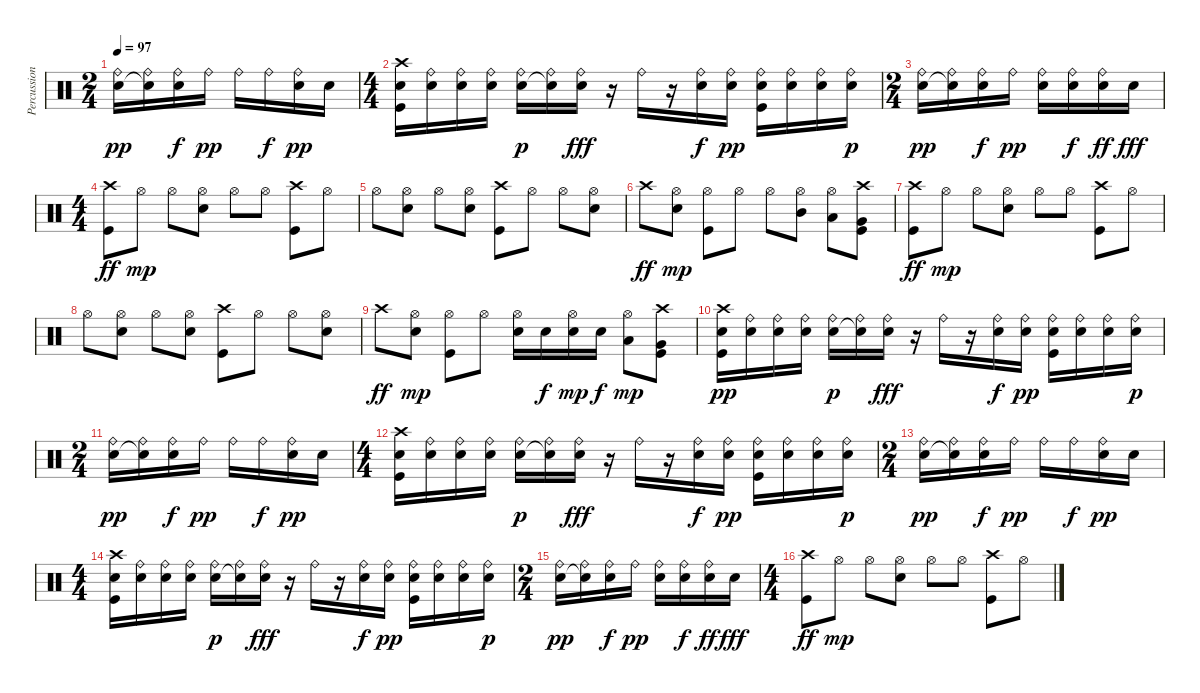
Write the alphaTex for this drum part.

\track ("Percussions (Etn)" "Percussion") {instrument percussion}
\staff {score}
\articulation defaults
\ts (2 4)
\tempo 97
\clef neutral
\ks c
("Ride (bell)" "Electric Snare (hit)").16{dy pp} ("Ride (bell)" "Snare (hit)"{t}).16 ("Ride (bell)" "Electric Snare (hit)").16{dy f} "Ride (bell)".16{dy pp} "Ride (bell)".16 "Ride (bell)".16{dy f} ("Ride (bell)" "Electric Snare (hit)").16{dy pp} "Electric Snare (hit)".16 |
\ts (4 4)
("Crash high (hit)" "Electric Snare (hit)" "Kick (hit)").16 ("Ride (bell)" "Electric Snare (hit)").16 ("Ride (bell)" "Electric Snare (hit)").16 ("Ride (bell)" "Electric Snare (hit)").16 ("Ride (bell)" "Electric Snare (hit)").16{dy p} ("Ride (bell)" "Snare (hit)"{t}).16 ("Ride (bell)" "Electric Snare (hit)").16{dy fff} r.16 "Ride (bell)".16 r.16 ("Ride (bell)" "Electric Snare (hit)").16{dy f} ("Ride (bell)" "Electric Snare (hit)").16{dy pp} ("Ride (bell)" "Electric Snare (hit)" "Kick (hit)").16 ("Ride (bell)" "Electric Snare (hit)").16 ("Ride (bell)" "Electric Snare (hit)").16 ("Ride (bell)" "Electric Snare (hit)").16{dy p} |
\ts (2 4)
("Ride (bell)" "Electric Snare (hit)").16{dy pp} ("Ride (bell)" "Snare (hit)"{t}).16 ("Ride (bell)" "Electric Snare (hit)").16{dy f} "Ride (bell)".16{dy pp} ("Ride (bell)" "Electric Snare (hit)").16 ("Ride (bell)" "Electric Snare (hit)").16{dy f} ("Ride (bell)" "Electric Snare (hit)").16{dy ff} "Electric Snare (hit)".16{dy fff} |
\ts (4 4)
("Crash high (hit)" "Kick (hit)").8{dy ff} "Hi-Hat (open)".8{dy mp} "Hi-Hat (open)".8 ("Hi-Hat (open)" "Electric Snare (hit)").8 "Hi-Hat (open)".8 "Hi-Hat (open)".8 ("Crash high (hit)" "Kick (hit)").8 "Hi-Hat (open)".8 |
"Hi-Hat (open)".8 ("Hi-Hat (open)" "Electric Snare (hit)").8 "Hi-Hat (open)".8 ("Hi-Hat (open)" "Electric Snare (hit)").8 ("Crash high (hit)" "Kick (hit)").8 "Hi-Hat (open)".8 "Hi-Hat (open)".8 ("Hi-Hat (open)" "Electric Snare (hit)").8 |
"Crash high (hit)".8{dy ff} ("Hi-Hat (open)" "Electric Snare (hit)").8{dy mp} ("Hi-Hat (open)" "Kick (hit)").8 "Hi-Hat (open)".8 "Hi-Hat (open)".8 ("Hi-Hat (open)" "Mid Tom (hit)").8 ("Hi-Hat (open)" "Low Tom (hit)").8 ("Crash high (hit)" "Very Low Tom (hit)" "Kick (hit)").8 |
("Crash high (hit)" "Kick (hit)").8{dy ff} "Hi-Hat (open)".8{dy mp} "Hi-Hat (open)".8 ("Hi-Hat (open)" "Electric Snare (hit)").8 "Hi-Hat (open)".8 "Hi-Hat (open)".8 ("Crash high (hit)" "Kick (hit)").8 "Hi-Hat (open)".8 |
"Hi-Hat (open)".8 ("Hi-Hat (open)" "Electric Snare (hit)").8 "Hi-Hat (open)".8 ("Hi-Hat (open)" "Electric Snare (hit)").8 ("Crash high (hit)" "Kick (hit)").8 "Hi-Hat (open)".8 "Hi-Hat (open)".8 ("Hi-Hat (open)" "Electric Snare (hit)").8 |
"Crash high (hit)".8{dy ff} ("Hi-Hat (open)" "Electric Snare (hit)").8{dy mp} ("Hi-Hat (open)" "Kick (hit)").8 "Hi-Hat (open)".8 ("Hi-Hat (open)" "Electric Snare (hit)").16 "Electric Snare (hit)".16{dy f} ("Hi-Hat (open)" "Electric Snare (hit)").16{dy mp} "Electric Snare (hit)".16{dy f} ("Hi-Hat (open)" "Low Tom (hit)").8{dy mp} ("Crash high (hit)" "Very Low Tom (hit)" "Kick (hit)").8 |
("Crash high (hit)" "Electric Snare (hit)" "Kick (hit)").16{dy pp} ("Ride (bell)" "Electric Snare (hit)").16 ("Ride (bell)" "Electric Snare (hit)").16 ("Ride (bell)" "Electric Snare (hit)").16 ("Ride (bell)" "Electric Snare (hit)").16{dy p} ("Ride (bell)" "Snare (hit)"{t}).16 ("Ride (bell)" "Electric Snare (hit)").16{dy fff} r.16 "Ride (bell)".16 r.16 ("Ride (bell)" "Electric Snare (hit)").16{dy f} ("Ride (bell)" "Electric Snare (hit)").16{dy pp} ("Ride (bell)" "Electric Snare (hit)" "Kick (hit)").16 ("Ride (bell)" "Electric Snare (hit)").16 ("Ride (bell)" "Electric Snare (hit)").16 ("Ride (bell)" "Electric Snare (hit)").16{dy p} |
\ts (2 4)
("Ride (bell)" "Electric Snare (hit)").16{dy pp} ("Ride (bell)" "Snare (hit)"{t}).16 ("Ride (bell)" "Electric Snare (hit)").16{dy f} "Ride (bell)".16{dy pp} "Ride (bell)".16 "Ride (bell)".16{dy f} ("Ride (bell)" "Electric Snare (hit)").16{dy pp} "Electric Snare (hit)".16 |
\ts (4 4)
("Crash high (hit)" "Electric Snare (hit)" "Kick (hit)").16 ("Ride (bell)" "Electric Snare (hit)").16 ("Ride (bell)" "Electric Snare (hit)").16 ("Ride (bell)" "Electric Snare (hit)").16 ("Ride (bell)" "Electric Snare (hit)").16{dy p} ("Ride (bell)" "Snare (hit)"{t}).16 ("Ride (bell)" "Electric Snare (hit)").16{dy fff} r.16 "Ride (bell)".16 r.16 ("Ride (bell)" "Electric Snare (hit)").16{dy f} ("Ride (bell)" "Electric Snare (hit)").16{dy pp} ("Ride (bell)" "Electric Snare (hit)" "Kick (hit)").16 ("Ride (bell)" "Electric Snare (hit)").16 ("Ride (bell)" "Electric Snare (hit)").16 ("Ride (bell)" "Electric Snare (hit)").16{dy p} |
\ts (2 4)
("Ride (bell)" "Electric Snare (hit)").16{dy pp} ("Ride (bell)" "Snare (hit)"{t}).16 ("Ride (bell)" "Electric Snare (hit)").16{dy f} "Ride (bell)".16{dy pp} "Ride (bell)".16 "Ride (bell)".16{dy f} ("Ride (bell)" "Electric Snare (hit)").16{dy pp} "Electric Snare (hit)".16 |
\ts (4 4)
("Crash high (hit)" "Electric Snare (hit)" "Kick (hit)").16 ("Ride (bell)" "Electric Snare (hit)").16 ("Ride (bell)" "Electric Snare (hit)").16 ("Ride (bell)" "Electric Snare (hit)").16 ("Ride (bell)" "Electric Snare (hit)").16{dy p} ("Ride (bell)" "Snare (hit)"{t}).16 ("Ride (bell)" "Electric Snare (hit)").16{dy fff} r.16 "Ride (bell)".16 r.16 ("Ride (bell)" "Electric Snare (hit)").16{dy f} ("Ride (bell)" "Electric Snare (hit)").16{dy pp} ("Ride (bell)" "Electric Snare (hit)" "Kick (hit)").16 ("Ride (bell)" "Electric Snare (hit)").16 ("Ride (bell)" "Electric Snare (hit)").16 ("Ride (bell)" "Electric Snare (hit)").16{dy p} |
\ts (2 4)
("Ride (bell)" "Electric Snare (hit)").16{dy pp} ("Ride (bell)" "Snare (hit)"{t}).16 ("Ride (bell)" "Electric Snare (hit)").16{dy f} "Ride (bell)".16{dy pp} ("Ride (bell)" "Electric Snare (hit)").16 ("Ride (bell)" "Electric Snare (hit)").16{dy f} ("Ride (bell)" "Electric Snare (hit)").16{dy ff} "Electric Snare (hit)".16{dy fff} |
\ts (4 4)
("Crash high (hit)" "Kick (hit)").8{dy ff} "Hi-Hat (open)".8{dy mp} "Hi-Hat (open)".8 ("Hi-Hat (open)" "Electric Snare (hit)").8 "Hi-Hat (open)".8 "Hi-Hat (open)".8 ("Crash high (hit)" "Kick (hit)").8 "Hi-Hat (open)".8
